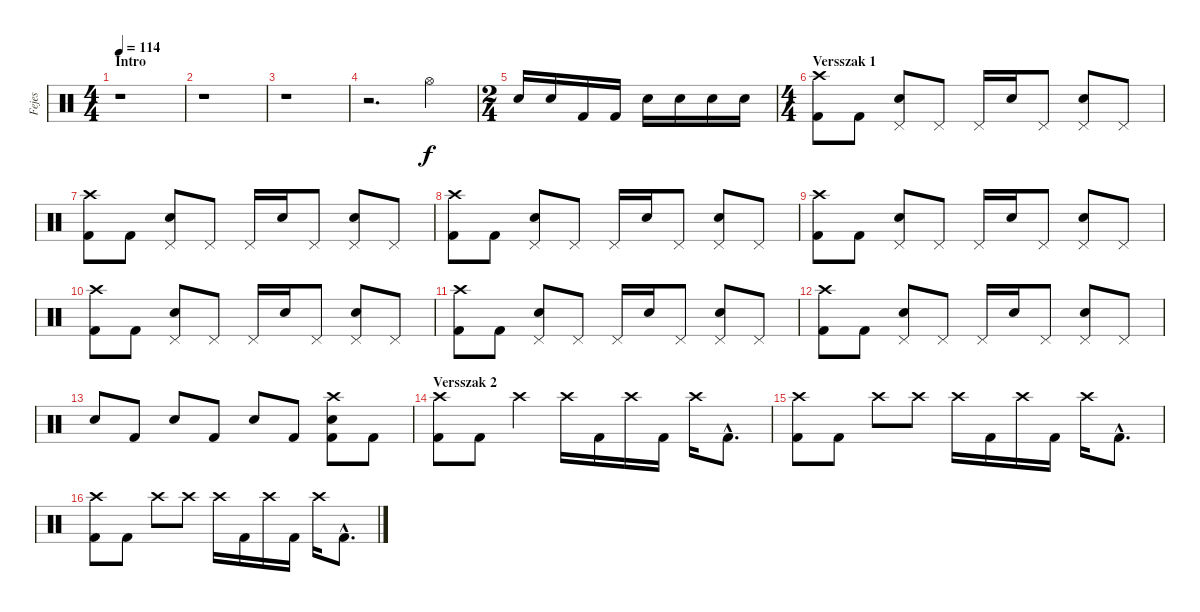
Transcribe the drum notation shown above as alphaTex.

\track ("Fejes" "Fejes") {instrument percussion}
\staff {score}
\articulation defaults
\ts (4 4)
\section ("" "Intro")
\tempo 114
\clef neutral
\ks c
r.1{dy f} |
r.1 |
r.1 |
r.2{d} "Hi-Hat (open)".4 |
\ts (2 4)
"Electric Snare (hit)".16 "Electric Snare (hit)".16 "Kick (hit) 2".16 "Kick (hit) 2".16 "Electric Snare (hit)".16 "Electric Snare (hit)".16 "Electric Snare (hit)".16 "Electric Snare (hit)".16 |
\ts (4 4)
\section ("" "Versszak 1")
("Crash high (hit)" "Kick (hit) 2").8 "Kick (hit) 2".8 ("Pedal Hi-Hat (hit)" "Electric Snare (hit)").8 "Pedal Hi-Hat (hit)".8 "Pedal Hi-Hat (hit)".16 "Electric Snare (hit)".16 "Pedal Hi-Hat (hit)".8 ("Pedal Hi-Hat (hit)" "Electric Snare (hit)").8 "Pedal Hi-Hat (hit)".8 |
("Crash high (hit)" "Kick (hit) 2").8 "Kick (hit) 2".8 ("Pedal Hi-Hat (hit)" "Electric Snare (hit)").8 "Pedal Hi-Hat (hit)".8 "Pedal Hi-Hat (hit)".16 "Electric Snare (hit)".16 "Pedal Hi-Hat (hit)".8 ("Pedal Hi-Hat (hit)" "Electric Snare (hit)").8 "Pedal Hi-Hat (hit)".8 |
("Crash high (hit)" "Kick (hit) 2").8 "Kick (hit) 2".8 ("Pedal Hi-Hat (hit)" "Electric Snare (hit)").8 "Pedal Hi-Hat (hit)".8 "Pedal Hi-Hat (hit)".16 "Electric Snare (hit)".16 "Pedal Hi-Hat (hit)".8 ("Pedal Hi-Hat (hit)" "Electric Snare (hit)").8 "Pedal Hi-Hat (hit)".8 |
("Crash high (hit)" "Kick (hit) 2").8 "Kick (hit) 2".8 ("Pedal Hi-Hat (hit)" "Electric Snare (hit)").8 "Pedal Hi-Hat (hit)".8 "Pedal Hi-Hat (hit)".16 "Electric Snare (hit)".16 "Pedal Hi-Hat (hit)".8 ("Pedal Hi-Hat (hit)" "Electric Snare (hit)").8 "Pedal Hi-Hat (hit)".8 |
("Crash high (hit)" "Kick (hit) 2").8 "Kick (hit) 2".8 ("Pedal Hi-Hat (hit)" "Electric Snare (hit)").8 "Pedal Hi-Hat (hit)".8 "Pedal Hi-Hat (hit)".16 "Electric Snare (hit)".16 "Pedal Hi-Hat (hit)".8 ("Pedal Hi-Hat (hit)" "Electric Snare (hit)").8 "Pedal Hi-Hat (hit)".8 |
("Crash high (hit)" "Kick (hit) 2").8 "Kick (hit) 2".8 ("Pedal Hi-Hat (hit)" "Electric Snare (hit)").8 "Pedal Hi-Hat (hit)".8 "Pedal Hi-Hat (hit)".16 "Electric Snare (hit)".16 "Pedal Hi-Hat (hit)".8 ("Pedal Hi-Hat (hit)" "Electric Snare (hit)").8 "Pedal Hi-Hat (hit)".8 |
("Crash high (hit)" "Kick (hit) 2").8 "Kick (hit) 2".8 ("Pedal Hi-Hat (hit)" "Electric Snare (hit)").8 "Pedal Hi-Hat (hit)".8 "Pedal Hi-Hat (hit)".16 "Electric Snare (hit)".16 "Pedal Hi-Hat (hit)".8 ("Pedal Hi-Hat (hit)" "Electric Snare (hit)").8 "Pedal Hi-Hat (hit)".8 |
"Electric Snare (hit)".8 "Kick (hit) 2".8 "Electric Snare (hit)".8 "Kick (hit) 2".8 "Electric Snare (hit)".8 "Kick (hit) 2".8 ("Crash high (hit)" "Electric Snare (hit)" "Kick (hit) 2").8 "Kick (hit) 2".8 |
\section ("" "Versszak 2")
("Crash high (hit)" "Kick (hit) 2").8 "Kick (hit) 2".8 "Crash high (hit)".4 "Crash high (hit)".16 "Kick (hit) 2".16 "Crash high (hit)".16 "Kick (hit) 2".16 "Crash high (hit)".16 "Kick (hit) 2"{hac}.8{d} |
("Crash high (hit)" "Kick (hit) 2").8 "Kick (hit) 2".8 "Crash high (hit)".8 "Crash high (hit)".8 "Crash high (hit)".16 "Kick (hit) 2".16 "Crash high (hit)".16 "Kick (hit) 2".16 "Crash high (hit)".16 "Kick (hit) 2"{hac}.8{d} |
("Crash high (hit)" "Kick (hit) 2").8 "Kick (hit) 2".8 "Crash high (hit)".8 "Crash high (hit)".8 "Crash high (hit)".16 "Kick (hit) 2".16 "Crash high (hit)".16 "Kick (hit) 2".16 "Crash high (hit)".16 "Kick (hit) 2"{hac}.8{d}
